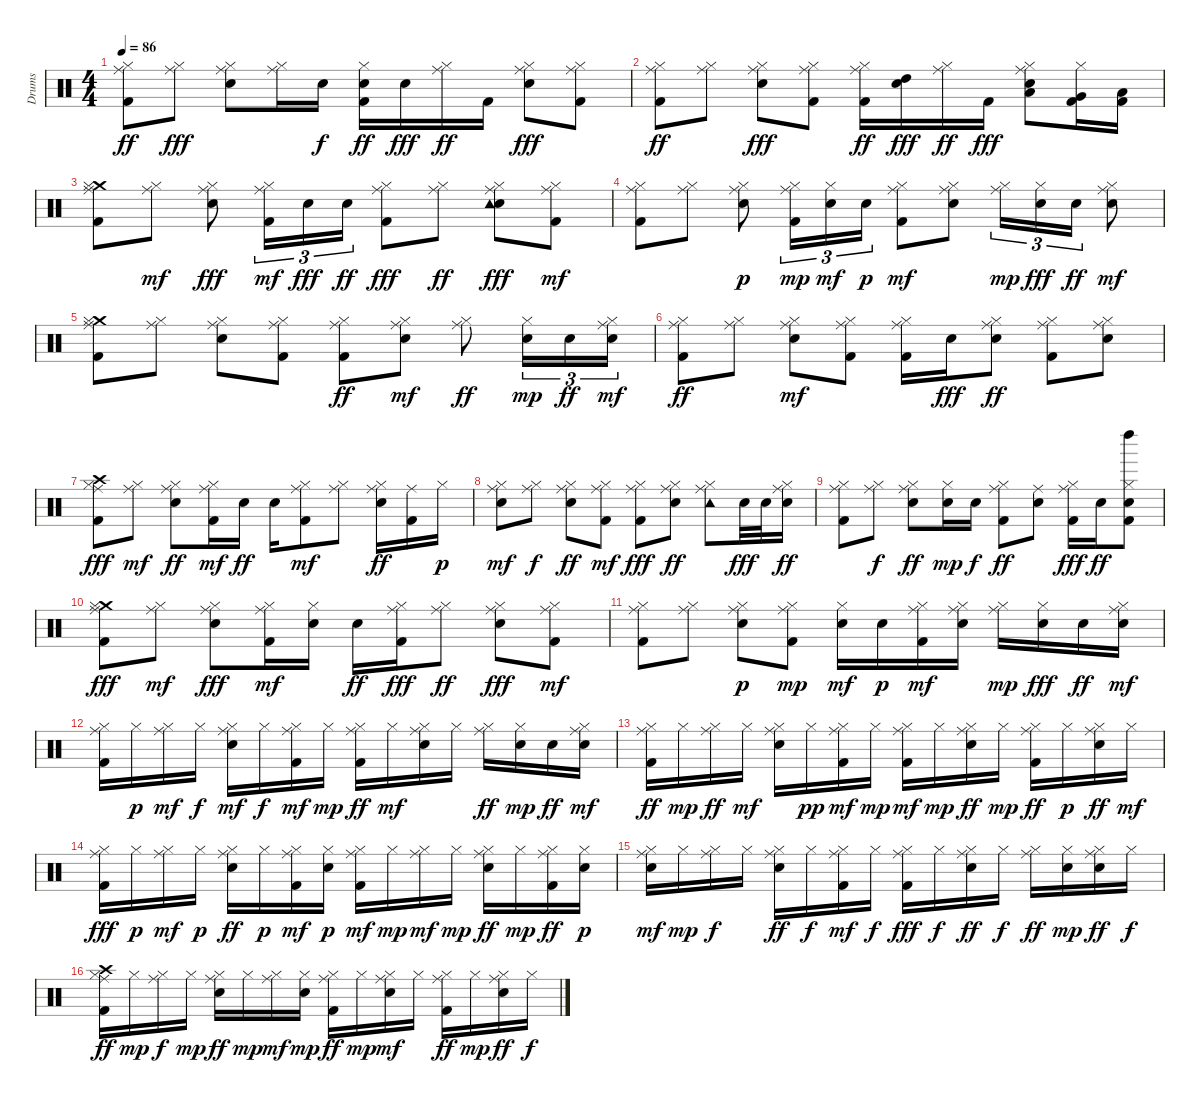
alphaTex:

\track ("Drums" "Drums") {instrument percussion}
\staff {score}
\articulation defaults
\ts (4 4)
\tempo 86
\clef neutral
\ks c
("Kick (hit) 2" "Ride (middle)" "Hi-Hat (closed)").8{dy ff} ("Ride (middle)" "Hi-Hat (closed)").8{dy fff} ("Snare (hit) 2" "Ride (middle)" "Hi-Hat (closed)").8 ("Ride (middle)" "Hi-Hat (closed)").16 "Snare (hit) 2".16{dy f} ("Kick (hit) 2" "Snare (hit) 2" "Hi-Hat (closed)").16{dy ff} "Snare (hit) 2".16{dy fff} ("Ride (middle)" "Hi-Hat (closed)").16{dy ff} "Kick (hit) 2".16 ("Snare (hit) 2" "Ride (middle)" "Hi-Hat (closed)").8{dy fff} ("Kick (hit) 2" "Ride (middle)" "Hi-Hat (closed)").8 |
("Kick (hit) 2" "Ride (middle)" "Hi-Hat (closed)").8{dy ff} ("Ride (middle)" "Hi-Hat (closed)").8 ("Snare (hit) 2" "Ride (middle)" "Hi-Hat (closed)").8{dy fff} ("Kick (hit) 2" "Ride (middle)" "Hi-Hat (closed)").8 ("Kick (hit) 2" "Ride (middle)" "Hi-Hat (closed)").16{dy ff} ("Snare (hit) 2" "High Tom (hit)").16{dy fff} ("Ride (middle)" "Hi-Hat (closed)").16{dy ff} "Kick (hit) 2".16{dy fff} ("Snare (hit) 2" "Ride (middle)" "Low Tom (hit)" "Hi-Hat (closed)").8 ("Kick (hit) 2" "Very Low Tom (hit)" "Hi-Hat (closed)").16 ("Kick (hit) 2" "Low Floor Tom (hit)").16 |
("Kick (hit) 2" "Ride (middle)" "Crash medium (hit)" "Hi-Hat (closed)").8 ("Ride (middle)" "Hi-Hat (closed)").8{dy mf} ("Snare (hit) 2" "Ride (middle)" "Hi-Hat (closed)").8{dy fff} ("Kick (hit) 2" "Ride (middle)" "Hi-Hat (closed)").16{tu (3 2) dy mf} "Snare (hit) 2".16{tu (3 2) dy fff} "Snare (hit) 2".16{tu (3 2) dy ff} ("Kick (hit) 2" "Ride (middle)" "Hi-Hat (closed)").8{dy fff} ("Ride (middle)" "Hi-Hat (closed)").8{dy ff} ("Snare (hit) 2" "Ride (middle)" "Tambourine (hit)" "Hi-Hat (closed)").8{dy fff} ("Kick (hit) 2" "Ride (middle)" "Hi-Hat (closed)").8{dy mf} |
("Kick (hit) 2" "Ride (middle)" "Hi-Hat (closed)").8 ("Ride (middle)" "Hi-Hat (closed)").8 ("Snare (hit) 2" "Ride (middle)" "Hi-Hat (closed)").8{dy p} ("Kick (hit) 2" "Ride (middle)" "Hi-Hat (closed)").16{tu (3 2) dy mp} ("Snare (hit) 2" "Hi-Hat (closed)").16{tu (3 2) dy mf} "Snare (hit) 2".16{tu (3 2) dy p} ("Kick (hit) 2" "Ride (middle)" "Hi-Hat (closed)").8{dy mf} ("Snare (hit) 2" "Ride (middle)" "Hi-Hat (closed)").8 ("Ride (middle)" "Hi-Hat (closed)").16{tu (3 2) dy mp} ("Snare (hit) 2" "Hi-Hat (closed)").16{tu (3 2) dy fff} "Snare (hit) 2".16{tu (3 2) dy ff} ("Snare (hit) 2" "Ride (middle)" "Hi-Hat (closed)").8{dy mf} |
("Kick (hit) 2" "Ride (middle)" "Crash medium (hit)" "Hi-Hat (closed)").8 ("Ride (middle)" "Hi-Hat (closed)").8 ("Snare (hit) 2" "Ride (middle)" "Hi-Hat (closed)").8 ("Kick (hit) 2" "Ride (middle)" "Hi-Hat (closed)").8 ("Kick (hit) 2" "Ride (middle)" "Hi-Hat (closed)").8{dy ff} ("Snare (hit) 2" "Ride (middle)" "Hi-Hat (closed)").8{dy mf} ("Ride (middle)" "Hi-Hat (closed)").8{dy ff} ("Snare (hit) 2" "Hi-Hat (closed)").16{tu (3 2) dy mp} "Snare (hit) 2".16{tu (3 2) dy ff} ("Snare (hit) 2" "Ride (middle)" "Hi-Hat (closed)").16{tu (3 2) dy mf} |
("Kick (hit) 2" "Ride (middle)" "Hi-Hat (closed)").8{dy ff} ("Ride (middle)" "Hi-Hat (closed)").8 ("Snare (hit) 2" "Ride (middle)" "Hi-Hat (closed)").8{dy mf} ("Kick (hit) 2" "Ride (middle)" "Hi-Hat (closed)").8 ("Kick (hit) 2" "Ride (middle)" "Hi-Hat (closed)").16 "Snare (hit) 2".16{dy fff} ("Snare (hit) 2" "Ride (middle)" "Hi-Hat (closed)").8{dy ff} ("Kick (hit) 2" "Ride (middle)" "Hi-Hat (closed)").8 ("Snare (hit) 2" "Ride (middle)" "Hi-Hat (closed)").8 |
("Kick (hit) 2" "Ride (middle)" "Crash high (hit)" "Hi-Hat (closed)").8{dy fff} ("Ride (middle)" "Hi-Hat (closed)").8{dy mf} ("Snare (hit) 2" "Ride (middle)" "Hi-Hat (closed)").8{dy ff} ("Kick (hit) 2" "Ride (middle)" "Hi-Hat (closed)").16{dy mf} "Snare (hit) 2".16{dy ff} "Snare (hit) 2".16 ("Kick (hit) 2" "Ride (middle)" "Hi-Hat (closed)").8{dy mf} ("Ride (middle)" "Hi-Hat (closed)").8 ("Snare (hit) 2" "Ride (middle)" "Hi-Hat (closed)").16{dy ff} ("Kick (hit) 2" "Ride (middle)").16 "Hi-Hat (closed)".16{dy p} |
("Snare (hit) 2" "Ride (middle)" "Hi-Hat (closed)").8{dy mf} ("Ride (middle)" "Hi-Hat (closed)").8{dy f} ("Snare (hit) 2" "Ride (middle)" "Hi-Hat (closed)").8{dy ff} ("Kick (hit) 2" "Ride (middle)" "Hi-Hat (closed)").8{dy mf} ("Kick (hit) 2" "Ride (middle)" "Hi-Hat (closed)").8{dy fff} ("Snare (hit) 2" "Ride (middle)" "Hi-Hat (closed)").8{dy ff} ("Tambourine (hit)" "Ride (middle)" "Hi-Hat (closed)").8 "Snare (hit) 2".32{dy fff} "Snare (hit) 2".32 ("Snare (hit) 2" "Ride (middle)" "Hi-Hat (closed)").16{dy ff} |
("Kick (hit) 2" "Ride (middle)" "Hi-Hat (closed)").8 ("Ride (middle)" "Hi-Hat (closed)").8{dy f} ("Snare (hit) 2" "Ride (middle)" "Hi-Hat (closed)").8{dy ff} ("Snare (hit) 2" "Hi-Hat (closed)").16{dy mp} "Snare (hit) 2".16{dy f} ("Kick (hit) 2" "Ride (middle)" "Hi-Hat (closed)").8{dy ff} ("Snare (hit) 2" "Ride (middle)").8 ("Kick (hit) 2" "Ride (middle)" "Hi-Hat (closed)").16{dy fff} "Snare (hit) 2".16{dy ff} ("Snare (hit) 2" "Kick (hit) 2" "Left Maraca (hit)" "Hi-Hat (closed)").8 |
("Kick (hit) 2" "Ride (middle)" "Crash medium (hit)" "Hi-Hat (closed)").8{dy fff} ("Ride (middle)" "Hi-Hat (closed)").8{dy mf} ("Snare (hit) 2" "Ride (middle)" "Hi-Hat (closed)").8{dy fff} ("Kick (hit) 2" "Ride (middle)" "Hi-Hat (closed)").16{dy mf} ("Snare (hit) 2" "Hi-Hat (closed)").16 "Snare (hit) 2".16{dy ff} ("Kick (hit) 2" "Ride (middle)" "Hi-Hat (closed)").16{dy fff} ("Ride (middle)" "Hi-Hat (closed)").8{dy ff} ("Snare (hit) 2" "Ride (middle)" "Hi-Hat (closed)").8{dy fff} ("Kick (hit) 2" "Ride (middle)" "Hi-Hat (closed)").8{dy mf} |
("Kick (hit) 2" "Ride (middle)" "Hi-Hat (closed)").8 ("Ride (middle)" "Hi-Hat (closed)").8 ("Snare (hit) 2" "Ride (middle)" "Hi-Hat (closed)").8{dy p} ("Kick (hit) 2" "Ride (middle)" "Hi-Hat (closed)").8{dy mp} ("Snare (hit) 2" "Hi-Hat (closed)").16{dy mf} "Snare (hit) 2".16{dy p} ("Kick (hit) 2" "Ride (middle)" "Hi-Hat (closed)").16{dy mf} ("Snare (hit) 2" "Ride (middle)" "Hi-Hat (closed)").16 ("Ride (middle)" "Hi-Hat (closed)").16{dy mp} ("Snare (hit) 2" "Hi-Hat (closed)").16{dy fff} "Snare (hit) 2".16{dy ff} ("Snare (hit) 2" "Ride (middle)" "Hi-Hat (closed)").16{dy mf} |
("Kick (hit) 2" "Ride (middle)" "Hi-Hat (closed)").16 "Hi-Hat (closed)".16{dy p} ("Ride (middle)" "Hi-Hat (closed)").16{dy mf} "Hi-Hat (closed)".16{dy f} ("Snare (hit) 2" "Ride (middle)" "Hi-Hat (closed)").16{dy mf} "Hi-Hat (closed)".16{dy f} ("Kick (hit) 2" "Ride (middle)" "Hi-Hat (closed)").16{dy mf} "Hi-Hat (closed)".16{dy mp} ("Kick (hit) 2" "Ride (middle)" "Hi-Hat (closed)").16{dy ff} "Hi-Hat (closed)".16{dy mf} ("Snare (hit) 2" "Ride (middle)" "Hi-Hat (closed)").16 "Hi-Hat (closed)".16 ("Ride (middle)" "Hi-Hat (closed)").16{dy ff} ("Snare (hit) 2" "Hi-Hat (closed)").16{dy mp} "Snare (hit) 2".16{dy ff} ("Snare (hit) 2" "Ride (middle)" "Hi-Hat (closed)").16{dy mf} |
("Kick (hit) 2" "Ride (middle)" "Hi-Hat (closed)").16{dy ff} "Hi-Hat (closed)".16{dy mp} ("Ride (middle)" "Hi-Hat (closed)").16{dy ff} "Hi-Hat (closed)".16{dy mf} ("Snare (hit) 2" "Ride (middle)" "Hi-Hat (closed)").16 "Hi-Hat (closed)".16{dy pp} ("Kick (hit) 2" "Ride (middle)" "Hi-Hat (closed)").16{dy mf} "Hi-Hat (closed)".16{dy mp} ("Kick (hit) 2" "Ride (middle)" "Hi-Hat (closed)").16{dy mf} "Hi-Hat (closed)".16{dy mp} ("Snare (hit) 2" "Ride (middle)" "Hi-Hat (closed)").16{dy ff} "Hi-Hat (closed)".16{dy mp} ("Kick (hit) 2" "Ride (middle)" "Hi-Hat (closed)").16{dy ff} "Hi-Hat (closed)".16{dy p} ("Snare (hit) 2" "Ride (middle)" "Hi-Hat (closed)").16{dy ff} "Hi-Hat (closed)".16{dy mf} |
("Kick (hit) 2" "Ride (middle)" "Hi-Hat (closed)").16{dy fff} "Hi-Hat (closed)".16{dy p} ("Ride (middle)" "Hi-Hat (closed)").16{dy mf} "Hi-Hat (closed)".16{dy p} ("Snare (hit) 2" "Ride (middle)" "Hi-Hat (closed)").16{dy ff} "Hi-Hat (closed)".16{dy p} ("Kick (hit) 2" "Ride (middle)" "Hi-Hat (closed)").16{dy mf} ("Snare (hit) 2" "Hi-Hat (closed)").16{dy p} ("Kick (hit) 2" "Ride (middle)" "Hi-Hat (closed)").16{dy mf} "Hi-Hat (closed)".16{dy mp} ("Ride (middle)" "Hi-Hat (closed)").16{dy mf} "Hi-Hat (closed)".16{dy mp} ("Snare (hit) 2" "Ride (middle)" "Hi-Hat (closed)").16{dy ff} "Hi-Hat (closed)".16{dy mp} ("Kick (hit) 2" "Ride (middle)" "Hi-Hat (closed)").16{dy ff} ("Snare (hit) 2" "Hi-Hat (closed)").16{dy p} |
("Snare (hit) 2" "Ride (middle)" "Hi-Hat (closed)").16{dy mf} "Hi-Hat (closed)".16{dy mp} ("Ride (middle)" "Hi-Hat (closed)").16{dy f} "Hi-Hat (closed)".16 ("Snare (hit) 2" "Ride (middle)" "Hi-Hat (closed)").16{dy ff} "Hi-Hat (closed)".16{dy f} ("Kick (hit) 2" "Ride (middle)" "Hi-Hat (closed)").16{dy mf} "Hi-Hat (closed)".16{dy f} ("Kick (hit) 2" "Ride (middle)" "Hi-Hat (closed)").16{dy fff} "Hi-Hat (closed)".16{dy f} ("Snare (hit) 2" "Ride (middle)" "Hi-Hat (closed)").16{dy ff} "Hi-Hat (closed)".16{dy f} ("Ride (middle)" "Hi-Hat (closed)").16{dy ff} ("Snare (hit) 2" "Hi-Hat (closed)").16{dy mp} ("Snare (hit) 2" "Ride (middle)" "Hi-Hat (closed)").16{dy ff} "Hi-Hat (closed)".16{dy f} |
("Kick (hit) 2" "Ride (middle)" "Crash high (hit)" "Hi-Hat (closed)").16{dy ff} "Hi-Hat (closed)".16{dy mp} ("Ride (middle)" "Hi-Hat (closed)").16{dy f} "Hi-Hat (closed)".16{dy mp} ("Snare (hit) 2" "Ride (middle)" "Hi-Hat (closed)").16{dy ff} "Hi-Hat (closed)".16{dy mp} ("Ride (middle)" "Hi-Hat (closed)").16{dy mf} ("Snare (hit) 2" "Hi-Hat (closed)").16{dy mp} ("Kick (hit) 2" "Ride (middle)" "Hi-Hat (closed)").16{dy ff} "Hi-Hat (closed)".16{dy mp} ("Snare (hit) 2" "Ride (middle)" "Hi-Hat (closed)").16{dy mf} "Hi-Hat (closed)".16 ("Kick (hit) 2" "Ride (middle)" "Hi-Hat (closed)").16{dy ff} "Hi-Hat (closed)".16{dy mp} ("Snare (hit) 2" "Ride (middle)" "Hi-Hat (closed)").16{dy ff} "Hi-Hat (closed)".16{dy f}
